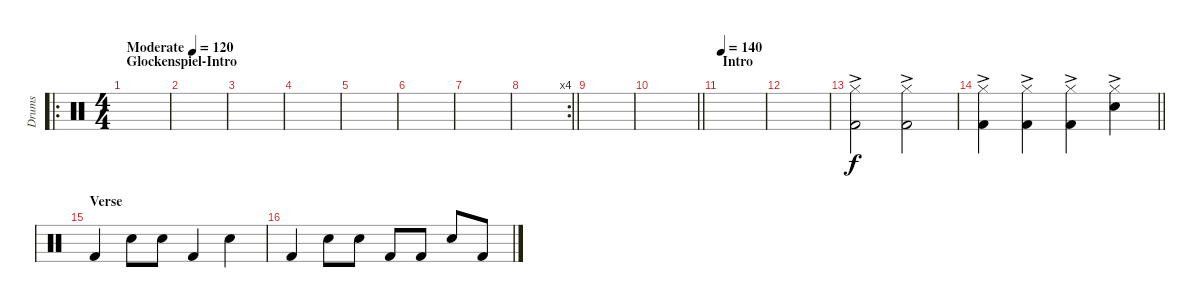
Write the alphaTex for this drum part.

\track ("Drums" "Drums") {instrument percussion}
\staff {score}
\articulation defaults
\ro
\ts (4 4)
\section ("" "Glockenspiel-Intro")
\tempo (120 "Moderate")
\clef neutral
\ks c
|
|
|
|
|
|
|
\rc 4
\barLineRight lightlight
|
|
\barLineRight lightlight
|
\section ("" "Intro")
\tempo 140
|
|
("Kick (hit) 2"{ac} "Hi-Hat (closed)"{ac}).2 ("Kick (hit) 2"{ac} "Hi-Hat (closed)"{ac}).2 |
\barLineRight lightlight
("Kick (hit) 2"{ac} "Hi-Hat (closed)"{ac}).4 ("Kick (hit) 2"{ac} "Hi-Hat (closed)"{ac}).4 ("Kick (hit) 2"{ac} "Hi-Hat (closed)"{ac}).4 ("Snare (hit) 2"{ac} "Hi-Hat (closed)"{ac}).4 |
\section ("" "Verse")
"Kick (hit) 2".4{dy f} "Snare (hit) 2".8 "Snare (hit) 2".8 "Kick (hit) 2".4 "Snare (hit) 2".4 |
"Kick (hit) 2".4 "Snare (hit) 2".8 "Snare (hit) 2".8 "Kick (hit) 2".8 "Kick (hit) 2".8 "Snare (hit) 2".8 "Kick (hit) 2".8
